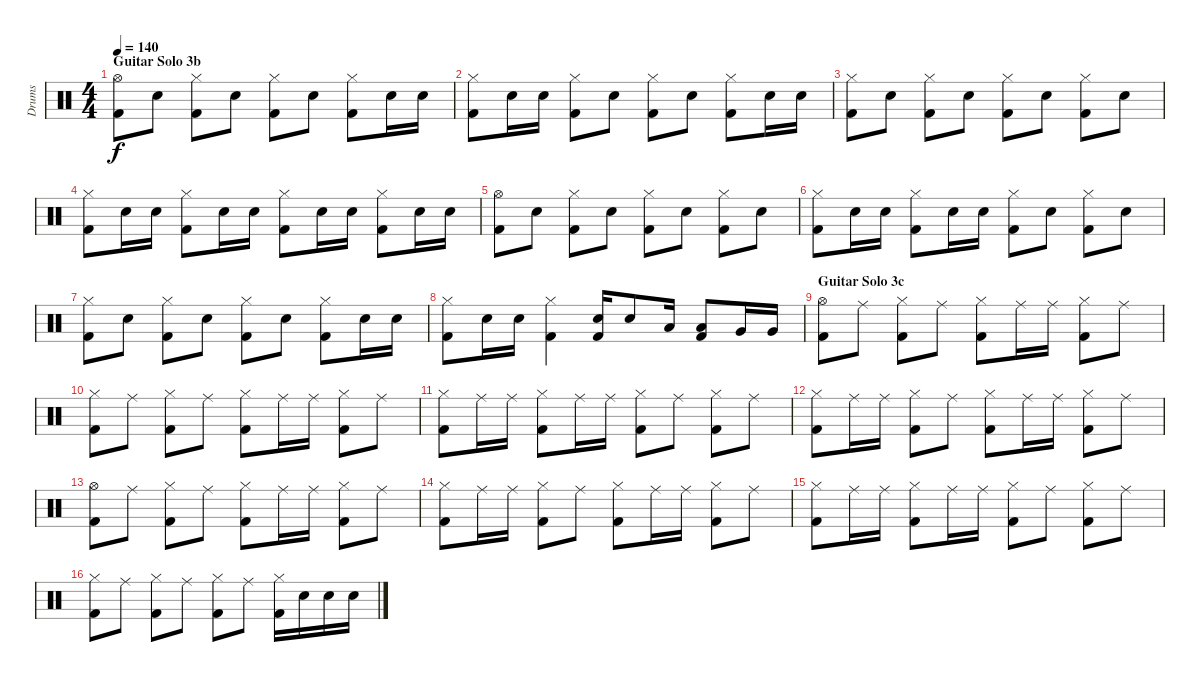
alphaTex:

\track ("Drums" "Drums") {instrument percussion}
\staff {score}
\articulation defaults
\ts (4 4)
\section ("" "Guitar Solo 3b")
\tempo 140
\clef neutral
\ks c
("Hi-Hat (open)" "Kick (hit) 2").8{dy f} "Snare (hit) 2".8 ("Hi-Hat (closed)" "Kick (hit) 2").8 "Snare (hit) 2".8 ("Hi-Hat (closed)" "Kick (hit) 2").8 "Snare (hit) 2".8 ("Hi-Hat (closed)" "Kick (hit) 2").8 "Snare (hit) 2".16 "Snare (hit) 2".16 |
("Hi-Hat (closed)" "Kick (hit) 2").8 "Snare (hit) 2".16 "Snare (hit) 2".16 ("Hi-Hat (closed)" "Kick (hit) 2").8 "Snare (hit) 2".8 ("Hi-Hat (closed)" "Kick (hit) 2").8 "Snare (hit) 2".8 ("Hi-Hat (closed)" "Kick (hit) 2").8 "Snare (hit) 2".16 "Snare (hit) 2".16 |
("Hi-Hat (closed)" "Kick (hit) 2").8 "Snare (hit) 2".8 ("Hi-Hat (closed)" "Kick (hit) 2").8 "Snare (hit) 2".8 ("Hi-Hat (closed)" "Kick (hit) 2").8 "Snare (hit) 2".8 ("Hi-Hat (closed)" "Kick (hit) 2").8 "Snare (hit) 2".8 |
("Hi-Hat (closed)" "Kick (hit) 2").8 "Snare (hit) 2".16 "Snare (hit) 2".16 ("Hi-Hat (closed)" "Kick (hit) 2").8 "Snare (hit) 2".16 "Snare (hit) 2".16 ("Hi-Hat (closed)" "Kick (hit) 2").8 "Snare (hit) 2".16 "Snare (hit) 2".16 ("Hi-Hat (closed)" "Kick (hit) 2").8 "Snare (hit) 2".16 "Snare (hit) 2".16 |
("Hi-Hat (open)" "Kick (hit) 2").8 "Snare (hit) 2".8 ("Hi-Hat (closed)" "Kick (hit) 2").8 "Snare (hit) 2".8 ("Hi-Hat (closed)" "Kick (hit) 2").8 "Snare (hit) 2".8 ("Hi-Hat (closed)" "Kick (hit) 2").8 "Snare (hit) 2".8 |
("Hi-Hat (closed)" "Kick (hit) 2").8 "Snare (hit) 2".16 "Snare (hit) 2".16 ("Hi-Hat (closed)" "Kick (hit) 2").8 "Snare (hit) 2".16 "Snare (hit) 2".16 ("Hi-Hat (closed)" "Kick (hit) 2").8 "Snare (hit) 2".8 ("Hi-Hat (closed)" "Kick (hit) 2").8 "Snare (hit) 2".8 |
("Hi-Hat (closed)" "Kick (hit) 2").8 "Snare (hit) 2".8 ("Hi-Hat (closed)" "Kick (hit) 2").8 "Snare (hit) 2".8 ("Hi-Hat (closed)" "Kick (hit) 2").8 "Snare (hit) 2".8 ("Hi-Hat (closed)" "Kick (hit) 2").8 "Snare (hit) 2".16 "Snare (hit) 2".16 |
("Hi-Hat (closed)" "Kick (hit) 2").8 "Snare (hit) 2".16 "Snare (hit) 2".16 ("Hi-Hat (closed)" "Kick (hit) 2").4 ("Snare (hit) 2" "Kick (hit) 2").16 "Snare (hit) 2".8 "Low Tom (hit)".16 ("Low Tom (hit)" "Kick (hit) 2").8 "Very Low Tom (hit)".16 "Very Low Tom (hit)".16 |
\section ("" "Guitar Solo 3c")
("Hi-Hat (open)" "Kick (hit) 2").8 "Ride (middle)".8 ("Hi-Hat (closed)" "Kick (hit) 2").8 "Ride (middle)".8 ("Hi-Hat (closed)" "Kick (hit) 2").8 "Ride (middle)".16 "Ride (middle)".16 ("Hi-Hat (closed)" "Kick (hit) 2").8 "Ride (middle)".8 |
("Hi-Hat (closed)" "Kick (hit) 2").8 "Ride (middle)".8 ("Hi-Hat (closed)" "Kick (hit) 2").8 "Ride (middle)".8 ("Hi-Hat (closed)" "Kick (hit) 2").8 "Ride (middle)".16 "Ride (middle)".16 ("Hi-Hat (closed)" "Kick (hit) 2").8 "Ride (middle)".8 |
("Hi-Hat (closed)" "Kick (hit) 2").8 "Ride (middle)".16 "Ride (middle)".16 ("Hi-Hat (closed)" "Kick (hit) 2").8 "Ride (middle)".16 "Ride (middle)".16 ("Hi-Hat (closed)" "Kick (hit) 2").8 "Ride (middle)".8 ("Hi-Hat (closed)" "Kick (hit) 2").8 "Ride (middle)".8 |
("Hi-Hat (closed)" "Kick (hit) 2").8 "Ride (middle)".16 "Ride (middle)".16 ("Hi-Hat (closed)" "Kick (hit) 2").8 "Ride (middle)".8 ("Hi-Hat (closed)" "Kick (hit) 2").8 "Ride (middle)".16 "Ride (middle)".16 ("Hi-Hat (closed)" "Kick (hit) 2").8 "Ride (middle)".8 |
("Hi-Hat (open)" "Kick (hit) 2").8 "Ride (middle)".8 ("Hi-Hat (closed)" "Kick (hit) 2").8 "Ride (middle)".8 ("Hi-Hat (closed)" "Kick (hit) 2").8 "Ride (middle)".16 "Ride (middle)".16 ("Hi-Hat (closed)" "Kick (hit) 2").8 "Ride (middle)".8 |
("Hi-Hat (closed)" "Kick (hit) 2").8 "Ride (middle)".16 "Ride (middle)".16 ("Hi-Hat (closed)" "Kick (hit) 2").8 "Ride (middle)".8 ("Hi-Hat (closed)" "Kick (hit) 2").8 "Ride (middle)".16 "Ride (middle)".16 ("Hi-Hat (closed)" "Kick (hit) 2").8 "Ride (middle)".8 |
("Hi-Hat (closed)" "Kick (hit) 2").8 "Ride (middle)".16 "Ride (middle)".16 ("Hi-Hat (closed)" "Kick (hit) 2").8 "Ride (middle)".16 "Ride (middle)".16 ("Hi-Hat (closed)" "Kick (hit) 2").8 "Ride (middle)".8 ("Hi-Hat (closed)" "Kick (hit) 2").8 "Ride (middle)".8 |
("Hi-Hat (closed)" "Kick (hit) 2").8 "Ride (middle)".8 ("Hi-Hat (closed)" "Kick (hit) 2").8 "Ride (middle)".8 ("Hi-Hat (closed)" "Kick (hit) 2").8 "Ride (middle)".8 ("Hi-Hat (closed)" "Kick (hit) 2").16 "Snare (hit) 2".16 "Snare (hit) 2".16 "Snare (hit) 2".16
